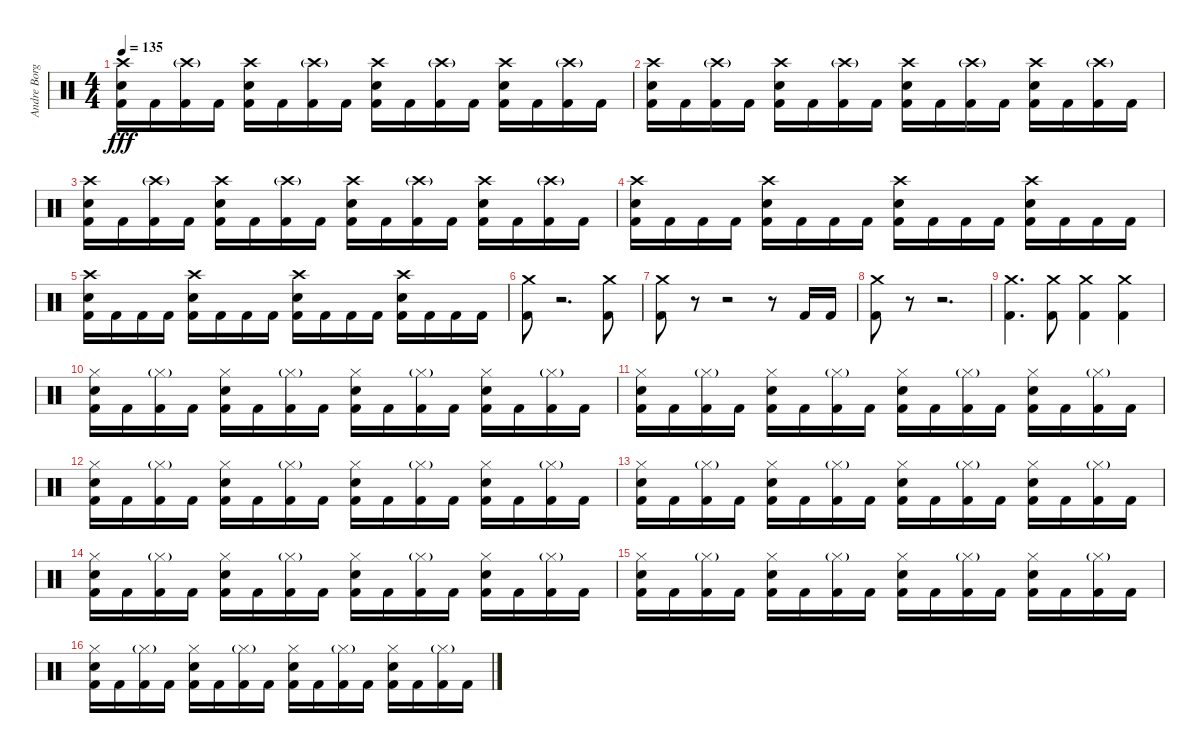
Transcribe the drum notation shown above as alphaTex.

\track ("Andre Borgman" "Andre Borg") {instrument percussion}
\staff {score}
\articulation defaults
\ts (4 4)
\tempo 135
\clef neutral
\ks c
("Crash high (hit)" "Snare (hit) 2" "Kick (hit) 2").16{dy fff} "Kick (hit) 2".16 ("Crash high (hit)"{g} "Kick (hit) 2").16 "Kick (hit) 2".16 ("Crash high (hit)" "Snare (hit) 2" "Kick (hit) 2").16 "Kick (hit) 2".16 ("Crash high (hit)"{g} "Kick (hit) 2").16 "Kick (hit) 2".16 ("Crash high (hit)" "Snare (hit) 2" "Kick (hit) 2").16 "Kick (hit) 2".16 ("Crash high (hit)"{g} "Kick (hit) 2").16 "Kick (hit) 2".16 ("Crash high (hit)" "Snare (hit) 2" "Kick (hit) 2").16 "Kick (hit) 2".16 ("Crash high (hit)"{g} "Kick (hit) 2").16 "Kick (hit) 2".16 |
("Crash high (hit)" "Snare (hit) 2" "Kick (hit) 2").16 "Kick (hit) 2".16 ("Crash high (hit)"{g} "Kick (hit) 2").16 "Kick (hit) 2".16 ("Crash high (hit)" "Snare (hit) 2" "Kick (hit) 2").16 "Kick (hit) 2".16 ("Crash high (hit)"{g} "Kick (hit) 2").16 "Kick (hit) 2".16 ("Crash high (hit)" "Snare (hit) 2" "Kick (hit) 2").16 "Kick (hit) 2".16 ("Crash high (hit)"{g} "Kick (hit) 2").16 "Kick (hit) 2".16 ("Crash high (hit)" "Snare (hit) 2" "Kick (hit) 2").16 "Kick (hit) 2".16 ("Crash high (hit)"{g} "Kick (hit) 2").16 "Kick (hit) 2".16 |
("Crash high (hit)" "Snare (hit) 2" "Kick (hit) 2").16 "Kick (hit) 2".16 ("Crash high (hit)"{g} "Kick (hit) 2").16 "Kick (hit) 2".16 ("Crash high (hit)" "Snare (hit) 2" "Kick (hit) 2").16 "Kick (hit) 2".16 ("Crash high (hit)"{g} "Kick (hit) 2").16 "Kick (hit) 2".16 ("Crash high (hit)" "Snare (hit) 2" "Kick (hit) 2").16 "Kick (hit) 2".16 ("Crash high (hit)"{g} "Kick (hit) 2").16 "Kick (hit) 2".16 ("Crash high (hit)" "Snare (hit) 2" "Kick (hit) 2").16 "Kick (hit) 2".16 ("Crash high (hit)"{g} "Kick (hit) 2").16 "Kick (hit) 2".16 |
("Crash high (hit)" "Snare (hit) 2" "Kick (hit) 2").16 "Kick (hit) 2".16 "Kick (hit) 2".16 "Kick (hit) 2".16 ("Crash high (hit)" "Snare (hit) 2" "Kick (hit) 2").16 "Kick (hit) 2".16 "Kick (hit) 2".16 "Kick (hit) 2".16 ("Crash high (hit)" "Snare (hit) 2" "Kick (hit) 2").16 "Kick (hit) 2".16 "Kick (hit) 2".16 "Kick (hit) 2".16 ("Crash high (hit)" "Snare (hit) 2" "Kick (hit) 2").16 "Kick (hit) 2".16 "Kick (hit) 2".16 "Kick (hit) 2".16 |
("Crash high (hit)" "Snare (hit) 2" "Kick (hit) 2").16 "Kick (hit) 2".16 "Kick (hit) 2".16 "Kick (hit) 2".16 ("Crash high (hit)" "Snare (hit) 2" "Kick (hit) 2").16 "Kick (hit) 2".16 "Kick (hit) 2".16 "Kick (hit) 2".16 ("Crash high (hit)" "Snare (hit) 2" "Kick (hit) 2").16 "Kick (hit) 2".16 "Kick (hit) 2".16 "Kick (hit) 2".16 ("Crash high (hit)" "Snare (hit) 2" "Kick (hit) 2").16 "Kick (hit) 2".16 "Kick (hit) 2".16 "Kick (hit) 2".16 |
("Crash medium (hit)" "Kick (hit) 2").8 r.2{d} ("Crash medium (hit)" "Kick (hit) 2").8 |
("Crash medium (hit)" "Kick (hit) 2").8 r.8 r.2 r.8 "Kick (hit) 2".16 "Kick (hit) 2".16 |
("Crash medium (hit)" "Kick (hit) 2").8 r.8 r.2{d} |
("Crash medium (hit)" "Kick (hit) 2").4{d} ("Crash medium (hit)" "Kick (hit) 2").8 ("Crash medium (hit)" "Kick (hit) 2").4 ("Crash medium (hit)" "Kick (hit) 2").4 |
("Hi-Hat (closed)" "Snare (hit) 2" "Kick (hit) 2").16 "Kick (hit) 2".16 ("Hi-Hat (closed)"{g} "Kick (hit) 2").16 "Kick (hit) 2".16 ("Hi-Hat (closed)" "Snare (hit) 2" "Kick (hit) 2").16 "Kick (hit) 2".16 ("Hi-Hat (closed)"{g} "Kick (hit) 2").16 "Kick (hit) 2".16 ("Hi-Hat (closed)" "Snare (hit) 2" "Kick (hit) 2").16 "Kick (hit) 2".16 ("Hi-Hat (closed)"{g} "Kick (hit) 2").16 "Kick (hit) 2".16 ("Hi-Hat (closed)" "Snare (hit) 2" "Kick (hit) 2").16 "Kick (hit) 2".16 ("Hi-Hat (closed)"{g} "Kick (hit) 2").16 "Kick (hit) 2".16 |
("Hi-Hat (closed)" "Snare (hit) 2" "Kick (hit) 2").16 "Kick (hit) 2".16 ("Hi-Hat (closed)"{g} "Kick (hit) 2").16 "Kick (hit) 2".16 ("Hi-Hat (closed)" "Snare (hit) 2" "Kick (hit) 2").16 "Kick (hit) 2".16 ("Hi-Hat (closed)"{g} "Kick (hit) 2").16 "Kick (hit) 2".16 ("Hi-Hat (closed)" "Snare (hit) 2" "Kick (hit) 2").16 "Kick (hit) 2".16 ("Hi-Hat (closed)"{g} "Kick (hit) 2").16 "Kick (hit) 2".16 ("Hi-Hat (closed)" "Snare (hit) 2" "Kick (hit) 2").16 "Kick (hit) 2".16 ("Hi-Hat (closed)"{g} "Kick (hit) 2").16 "Kick (hit) 2".16 |
("Hi-Hat (closed)" "Snare (hit) 2" "Kick (hit) 2").16 "Kick (hit) 2".16 ("Hi-Hat (closed)"{g} "Kick (hit) 2").16 "Kick (hit) 2".16 ("Hi-Hat (closed)" "Snare (hit) 2" "Kick (hit) 2").16 "Kick (hit) 2".16 ("Hi-Hat (closed)"{g} "Kick (hit) 2").16 "Kick (hit) 2".16 ("Hi-Hat (closed)" "Snare (hit) 2" "Kick (hit) 2").16 "Kick (hit) 2".16 ("Hi-Hat (closed)"{g} "Kick (hit) 2").16 "Kick (hit) 2".16 ("Hi-Hat (closed)" "Snare (hit) 2" "Kick (hit) 2").16 "Kick (hit) 2".16 ("Hi-Hat (closed)"{g} "Kick (hit) 2").16 "Kick (hit) 2".16 |
("Hi-Hat (closed)" "Snare (hit) 2" "Kick (hit) 2").16 "Kick (hit) 2".16 ("Hi-Hat (closed)"{g} "Kick (hit) 2").16 "Kick (hit) 2".16 ("Hi-Hat (closed)" "Snare (hit) 2" "Kick (hit) 2").16 "Kick (hit) 2".16 ("Hi-Hat (closed)"{g} "Kick (hit) 2").16 "Kick (hit) 2".16 ("Hi-Hat (closed)" "Snare (hit) 2" "Kick (hit) 2").16 "Kick (hit) 2".16 ("Hi-Hat (closed)"{g} "Kick (hit) 2").16 "Kick (hit) 2".16 ("Hi-Hat (closed)" "Snare (hit) 2" "Kick (hit) 2").16 "Kick (hit) 2".16 ("Hi-Hat (closed)"{g} "Kick (hit) 2").16 "Kick (hit) 2".16 |
("Hi-Hat (closed)" "Snare (hit) 2" "Kick (hit) 2").16 "Kick (hit) 2".16 ("Hi-Hat (closed)"{g} "Kick (hit) 2").16 "Kick (hit) 2".16 ("Hi-Hat (closed)" "Snare (hit) 2" "Kick (hit) 2").16 "Kick (hit) 2".16 ("Hi-Hat (closed)"{g} "Kick (hit) 2").16 "Kick (hit) 2".16 ("Hi-Hat (closed)" "Snare (hit) 2" "Kick (hit) 2").16 "Kick (hit) 2".16 ("Hi-Hat (closed)"{g} "Kick (hit) 2").16 "Kick (hit) 2".16 ("Hi-Hat (closed)" "Snare (hit) 2" "Kick (hit) 2").16 "Kick (hit) 2".16 ("Hi-Hat (closed)"{g} "Kick (hit) 2").16 "Kick (hit) 2".16 |
("Hi-Hat (closed)" "Snare (hit) 2" "Kick (hit) 2").16 "Kick (hit) 2".16 ("Hi-Hat (closed)"{g} "Kick (hit) 2").16 "Kick (hit) 2".16 ("Hi-Hat (closed)" "Snare (hit) 2" "Kick (hit) 2").16 "Kick (hit) 2".16 ("Hi-Hat (closed)"{g} "Kick (hit) 2").16 "Kick (hit) 2".16 ("Hi-Hat (closed)" "Snare (hit) 2" "Kick (hit) 2").16 "Kick (hit) 2".16 ("Hi-Hat (closed)"{g} "Kick (hit) 2").16 "Kick (hit) 2".16 ("Hi-Hat (closed)" "Snare (hit) 2" "Kick (hit) 2").16 "Kick (hit) 2".16 ("Hi-Hat (closed)"{g} "Kick (hit) 2").16 "Kick (hit) 2".16 |
("Hi-Hat (closed)" "Snare (hit) 2" "Kick (hit) 2").16 "Kick (hit) 2".16 ("Hi-Hat (closed)"{g} "Kick (hit) 2").16 "Kick (hit) 2".16 ("Hi-Hat (closed)" "Snare (hit) 2" "Kick (hit) 2").16 "Kick (hit) 2".16 ("Hi-Hat (closed)"{g} "Kick (hit) 2").16 "Kick (hit) 2".16 ("Hi-Hat (closed)" "Snare (hit) 2" "Kick (hit) 2").16 "Kick (hit) 2".16 ("Hi-Hat (closed)"{g} "Kick (hit) 2").16 "Kick (hit) 2".16 ("Hi-Hat (closed)" "Snare (hit) 2" "Kick (hit) 2").16 "Kick (hit) 2".16 ("Hi-Hat (closed)"{g} "Kick (hit) 2").16 "Kick (hit) 2".16
